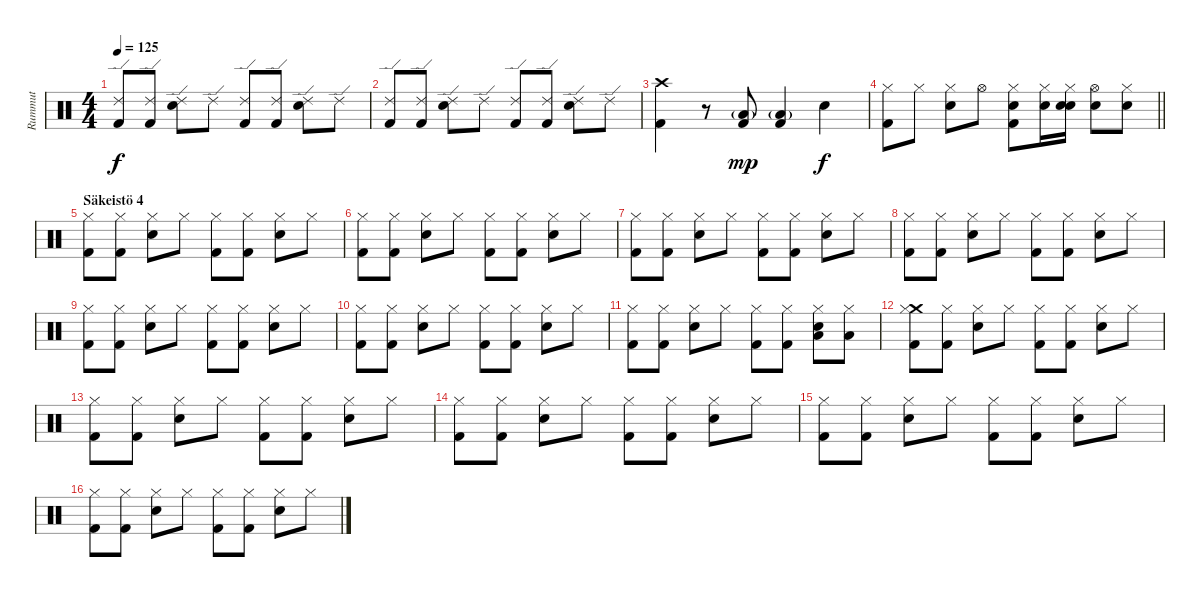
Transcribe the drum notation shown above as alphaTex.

\track ("Rummut" "Rummut") {instrument percussion}
\staff {score}
\articulation defaults
\ts (4 4)
\tempo 125
\clef neutral
\ks c
("Kick (hit) 2" "Ride (edge) 2").8{dy f} ("Kick (hit) 2" "Ride (edge) 2").8 ("Snare (hit) 2" "Ride (edge) 2").8 "Ride (edge) 2".8 ("Kick (hit) 2" "Ride (edge) 2").8 ("Kick (hit) 2" "Ride (edge) 2").8 ("Snare (hit) 2" "Ride (edge) 2").8 "Ride (edge) 2".8 |
("Kick (hit) 2" "Ride (edge) 2").8 ("Kick (hit) 2" "Ride (edge) 2").8 ("Snare (hit) 2" "Ride (edge) 2").8 "Ride (edge) 2".8 ("Kick (hit) 2" "Ride (edge) 2").8 ("Kick (hit) 2" "Ride (edge) 2").8 ("Snare (hit) 2" "Ride (edge) 2").8 "Ride (edge) 2".8 |
("Kick (hit) 2" "Crash high (hit)").4 r.8 ("Low Tom (hit)"{g} "Kick (hit) 2").8{dy mp} ("Low Tom (hit)"{g} "Kick (hit) 2").4 "Snare (hit) 2".4{dy f} |
\barLineRight lightlight
("Hi-Hat (closed)" "Kick (hit) 2").8 "Hi-Hat (closed)".8 ("Hi-Hat (closed)" "Snare (hit) 2").8 "Hi-Hat (open)".8 ("Snare (hit) 2" "Hi-Hat (closed)" "Kick (hit) 2").8 ("Snare (hit) 2" "Hi-Hat (closed)").16 ("Snare (hit) 2" "Hi-Hat (closed)" "Snare (hit) 2").16 ("Snare (hit) 2" "Hi-Hat (open)").8 ("Snare (hit) 2" "Hi-Hat (closed)").8 |
\section ("" "Säkeistö 4")
("Kick (hit) 2" "Hi-Hat (closed)").8 ("Kick (hit) 2" "Hi-Hat (closed)").8 ("Snare (hit) 2" "Hi-Hat (closed)").8 "Hi-Hat (closed)".8 ("Kick (hit) 2" "Hi-Hat (closed)").8 ("Kick (hit) 2" "Hi-Hat (closed)").8 ("Snare (hit) 2" "Hi-Hat (closed)").8 "Hi-Hat (closed)".8 |
("Kick (hit) 2" "Hi-Hat (closed)").8 ("Kick (hit) 2" "Hi-Hat (closed)").8 ("Snare (hit) 2" "Hi-Hat (closed)").8 "Hi-Hat (closed)".8 ("Kick (hit) 2" "Hi-Hat (closed)").8 ("Kick (hit) 2" "Hi-Hat (closed)").8 ("Snare (hit) 2" "Hi-Hat (closed)").8 "Hi-Hat (closed)".8 |
("Kick (hit) 2" "Hi-Hat (closed)").8 ("Kick (hit) 2" "Hi-Hat (closed)").8 ("Snare (hit) 2" "Hi-Hat (closed)").8 "Hi-Hat (closed)".8 ("Kick (hit) 2" "Hi-Hat (closed)").8 ("Kick (hit) 2" "Hi-Hat (closed)").8 ("Snare (hit) 2" "Hi-Hat (closed)").8 "Hi-Hat (closed)".8 |
("Kick (hit) 2" "Hi-Hat (closed)").8 ("Kick (hit) 2" "Hi-Hat (closed)").8 ("Snare (hit) 2" "Hi-Hat (closed)").8 "Hi-Hat (closed)".8 ("Kick (hit) 2" "Hi-Hat (closed)").8 ("Kick (hit) 2" "Hi-Hat (closed)").8 ("Snare (hit) 2" "Hi-Hat (closed)").8 "Hi-Hat (closed)".8 |
("Kick (hit) 2" "Hi-Hat (closed)").8 ("Kick (hit) 2" "Hi-Hat (closed)").8 ("Snare (hit) 2" "Hi-Hat (closed)").8 "Hi-Hat (closed)".8 ("Kick (hit) 2" "Hi-Hat (closed)").8 ("Kick (hit) 2" "Hi-Hat (closed)").8 ("Snare (hit) 2" "Hi-Hat (closed)").8 "Hi-Hat (closed)".8 |
("Kick (hit) 2" "Hi-Hat (closed)").8 ("Kick (hit) 2" "Hi-Hat (closed)").8 ("Snare (hit) 2" "Hi-Hat (closed)").8 "Hi-Hat (closed)".8 ("Kick (hit) 2" "Hi-Hat (closed)").8 ("Kick (hit) 2" "Hi-Hat (closed)").8 ("Snare (hit) 2" "Hi-Hat (closed)").8 "Hi-Hat (closed)".8 |
("Kick (hit) 2" "Hi-Hat (closed)").8 ("Kick (hit) 2" "Hi-Hat (closed)").8 ("Snare (hit) 2" "Hi-Hat (closed)").8 "Hi-Hat (closed)".8 ("Kick (hit) 2" "Hi-Hat (closed)").8 ("Kick (hit) 2" "Hi-Hat (closed)").8 ("Low Tom (hit)" "Snare (hit) 2" "Hi-Hat (closed)").8 ("Low Tom (hit)" "Hi-Hat (closed)").8 |
("Crash medium (hit)" "Kick (hit) 2" "Hi-Hat (closed)").8 ("Kick (hit) 2" "Hi-Hat (closed)").8 ("Snare (hit) 2" "Hi-Hat (closed)").8 "Hi-Hat (closed)".8 ("Kick (hit) 2" "Hi-Hat (closed)").8 ("Kick (hit) 2" "Hi-Hat (closed)").8 ("Snare (hit) 2" "Hi-Hat (closed)").8 "Hi-Hat (closed)".8 |
("Kick (hit) 2" "Hi-Hat (closed)").8 ("Kick (hit) 2" "Hi-Hat (closed)").8 ("Snare (hit) 2" "Hi-Hat (closed)").8 "Hi-Hat (closed)".8 ("Kick (hit) 2" "Hi-Hat (closed)").8 ("Kick (hit) 2" "Hi-Hat (closed)").8 ("Snare (hit) 2" "Hi-Hat (closed)").8 "Hi-Hat (closed)".8 |
("Kick (hit) 2" "Hi-Hat (closed)").8 ("Kick (hit) 2" "Hi-Hat (closed)").8 ("Snare (hit) 2" "Hi-Hat (closed)").8 "Hi-Hat (closed)".8 ("Kick (hit) 2" "Hi-Hat (closed)").8 ("Kick (hit) 2" "Hi-Hat (closed)").8 ("Snare (hit) 2" "Hi-Hat (closed)").8 "Hi-Hat (closed)".8 |
("Kick (hit) 2" "Hi-Hat (closed)").8 ("Kick (hit) 2" "Hi-Hat (closed)").8 ("Snare (hit) 2" "Hi-Hat (closed)").8 "Hi-Hat (closed)".8 ("Kick (hit) 2" "Hi-Hat (closed)").8 ("Kick (hit) 2" "Hi-Hat (closed)").8 ("Snare (hit) 2" "Hi-Hat (closed)").8 "Hi-Hat (closed)".8 |
("Kick (hit) 2" "Hi-Hat (closed)").8 ("Kick (hit) 2" "Hi-Hat (closed)").8 ("Snare (hit) 2" "Hi-Hat (closed)").8 "Hi-Hat (closed)".8 ("Kick (hit) 2" "Hi-Hat (closed)").8 ("Kick (hit) 2" "Hi-Hat (closed)").8 ("Snare (hit) 2" "Hi-Hat (closed)").8 "Hi-Hat (closed)".8
